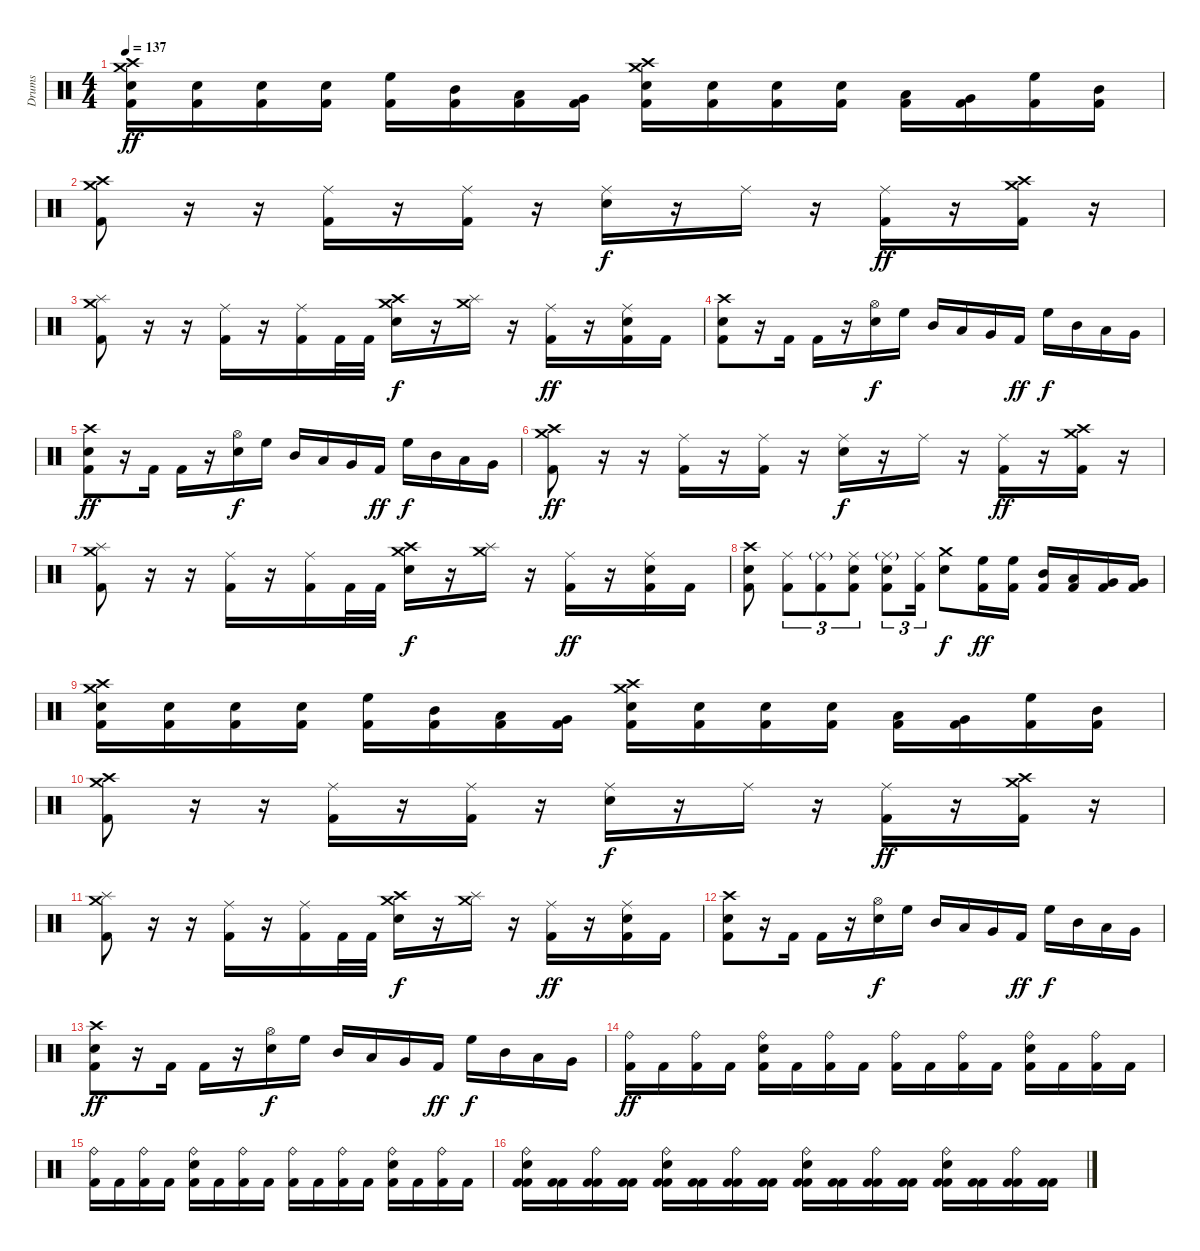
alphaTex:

\track ("Drums" "Drums") {instrument percussion}
\staff {score}
\articulation defaults
\ts (4 4)
\tempo 137
\clef neutral
\ks c
("Crash high (hit)" "Electric Snare (hit)" "Crash medium (hit)" "Kick (hit) 2").16{dy ff} ("Electric Snare (hit)" "Kick (hit) 2").16 ("Electric Snare (hit)" "Kick (hit) 2").16 ("Electric Snare (hit)" "Kick (hit) 2").16 ("High Floor Tom (hit)" "Kick (hit) 2").16 ("Mid Tom (hit)" "Kick (hit) 2").16 ("Low Tom (hit)" "Kick (hit) 2").16 ("Very Low Tom (hit)" "Kick (hit) 2").16 ("Crash high (hit)" "Electric Snare (hit)" "Crash medium (hit)" "Kick (hit) 2").16 ("Electric Snare (hit)" "Kick (hit) 2").16 ("Electric Snare (hit)" "Kick (hit) 2").16 ("Electric Snare (hit)" "Kick (hit) 2").16 ("Low Tom (hit)" "Kick (hit) 2").16 ("Very Low Tom (hit)" "Kick (hit) 2").16 ("High Floor Tom (hit)" "Kick (hit) 2").16 ("Mid Tom (hit)" "Kick (hit) 2").16 |
("Crash high (hit)" "Crash medium (hit)" "Kick (hit) 2").8 r.16 r.16 ("Ride (middle)" "Kick (hit) 2").16 r.16 ("Ride (middle)" "Kick (hit) 2").16 r.16 ("Ride (middle)" "Electric Snare (hit)").16{dy f} r.16 "Ride (middle)".16 r.16 ("Ride (middle)" "Kick (hit) 2").16{dy ff} r.16 ("Crash high (hit)" "Crash medium (hit)" "Kick (hit) 2").16 r.16 |
("Crash medium (hit)" "Splash (hit)" "Kick (hit) 2").8 r.16 r.16 ("Ride (middle)" "Kick (hit) 2").16 r.16 ("Ride (middle)" "Kick (hit) 2").16 "Kick (hit) 2".32 "Kick (hit) 2".32 ("Crash high (hit)" "Electric Snare (hit)" "Crash medium (hit)").16{dy f} r.16 ("Crash medium (hit)" "Splash (hit)").16 r.16 ("Ride (middle)" "Kick (hit) 2").16{dy ff} r.16 ("Ride (middle)" "Electric Snare (hit)" "Kick (hit) 2").16 "Kick (hit) 2".16 |
("Crash high (hit)" "Electric Snare (hit)" "Kick (hit) 2").8 r.16 "Kick (hit) 2".16 "Kick (hit) 2".16 r.16 ("Hi-Hat (open)" "Electric Snare (hit)").16{dy f} "High Floor Tom (hit)".16 "Mid Tom (hit)".16 "Low Tom (hit)".16 "Very Low Tom (hit)".16 "Kick (hit) 2".16{dy ff} "High Floor Tom (hit)".16{dy f} "Mid Tom (hit)".16 "Low Tom (hit)".16 "Very Low Tom (hit)".16 |
("Crash high (hit)" "Electric Snare (hit)" "Kick (hit) 2").8{dy ff} r.16 "Kick (hit) 2".16 "Kick (hit) 2".16 r.16 ("Hi-Hat (open)" "Electric Snare (hit)").16{dy f} "High Floor Tom (hit)".16 "Mid Tom (hit)".16 "Low Tom (hit)".16 "Very Low Tom (hit)".16 "Kick (hit) 2".16{dy ff} "High Floor Tom (hit)".16{dy f} "Mid Tom (hit)".16 "Low Tom (hit)".16 "Very Low Tom (hit)".16 |
("Crash high (hit)" "Crash medium (hit)" "Kick (hit) 2").8{dy ff} r.16 r.16 ("Ride (middle)" "Kick (hit) 2").16 r.16 ("Ride (middle)" "Kick (hit) 2").16 r.16 ("Ride (middle)" "Electric Snare (hit)").16{dy f} r.16 "Ride (middle)".16 r.16 ("Ride (middle)" "Kick (hit) 2").16{dy ff} r.16 ("Crash high (hit)" "Crash medium (hit)" "Kick (hit) 2").16 r.16 |
("Crash medium (hit)" "Splash (hit)" "Kick (hit) 2").8 r.16 r.16 ("Ride (middle)" "Kick (hit) 2").16 r.16 ("Ride (middle)" "Kick (hit) 2").16 "Kick (hit) 2".32 "Kick (hit) 2".32 ("Crash high (hit)" "Electric Snare (hit)" "Crash medium (hit)").16{dy f} r.16 ("Crash medium (hit)" "Splash (hit)").16 r.16 ("Ride (middle)" "Kick (hit) 2").16{dy ff} r.16 ("Ride (middle)" "Electric Snare (hit)" "Kick (hit) 2").16 "Kick (hit) 2".16 |
("Crash high (hit)" "Electric Snare (hit)" "Kick (hit) 2").8 ("Ride (middle)" "Kick (hit) 2").8{tu (3 2)} ("Ride (middle)"{g} "Kick (hit) 2").8{tu (3 2)} ("Ride (middle)" "Electric Snare (hit)" "Kick (hit) 2").8{tu (3 2)} ("Ride (middle)"{g} "Electric Snare (hit)" "Kick (hit) 2").8{tu (3 2)} ("Ride (middle)" "Kick (hit) 2").16{tu (3 2)} ("Crash medium (hit)" "Electric Snare (hit)").8{dy f} ("High Floor Tom (hit)" "Kick (hit) 2").16{dy ff} ("High Floor Tom (hit)" "Kick (hit) 2").16 ("Mid Tom (hit)" "Kick (hit) 2").16 ("Low Tom (hit)" "Kick (hit) 2").16 ("Very Low Tom (hit)" "Kick (hit) 2").16 ("Very Low Tom (hit)" "Kick (hit) 2").16 |
("Crash high (hit)" "Electric Snare (hit)" "Crash medium (hit)" "Kick (hit) 2").16 ("Electric Snare (hit)" "Kick (hit) 2").16 ("Electric Snare (hit)" "Kick (hit) 2").16 ("Electric Snare (hit)" "Kick (hit) 2").16 ("High Floor Tom (hit)" "Kick (hit) 2").16 ("Mid Tom (hit)" "Kick (hit) 2").16 ("Low Tom (hit)" "Kick (hit) 2").16 ("Very Low Tom (hit)" "Kick (hit) 2").16 ("Crash high (hit)" "Electric Snare (hit)" "Crash medium (hit)" "Kick (hit) 2").16 ("Electric Snare (hit)" "Kick (hit) 2").16 ("Electric Snare (hit)" "Kick (hit) 2").16 ("Electric Snare (hit)" "Kick (hit) 2").16 ("Low Tom (hit)" "Kick (hit) 2").16 ("Very Low Tom (hit)" "Kick (hit) 2").16 ("High Floor Tom (hit)" "Kick (hit) 2").16 ("Mid Tom (hit)" "Kick (hit) 2").16 |
("Crash high (hit)" "Crash medium (hit)" "Kick (hit) 2").8 r.16 r.16 ("Ride (middle)" "Kick (hit) 2").16 r.16 ("Ride (middle)" "Kick (hit) 2").16 r.16 ("Ride (middle)" "Electric Snare (hit)").16{dy f} r.16 "Ride (middle)".16 r.16 ("Ride (middle)" "Kick (hit) 2").16{dy ff} r.16 ("Crash high (hit)" "Crash medium (hit)" "Kick (hit) 2").16 r.16 |
("Crash medium (hit)" "Splash (hit)" "Kick (hit) 2").8 r.16 r.16 ("Ride (middle)" "Kick (hit) 2").16 r.16 ("Ride (middle)" "Kick (hit) 2").16 "Kick (hit) 2".32 "Kick (hit) 2".32 ("Crash high (hit)" "Electric Snare (hit)" "Crash medium (hit)").16{dy f} r.16 ("Crash medium (hit)" "Splash (hit)").16 r.16 ("Ride (middle)" "Kick (hit) 2").16{dy ff} r.16 ("Ride (middle)" "Electric Snare (hit)" "Kick (hit) 2").16 "Kick (hit) 2".16 |
("Crash high (hit)" "Electric Snare (hit)" "Kick (hit) 2").8 r.16 "Kick (hit) 2".16 "Kick (hit) 2".16 r.16 ("Hi-Hat (open)" "Electric Snare (hit)").16{dy f} "High Floor Tom (hit)".16 "Mid Tom (hit)".16 "Low Tom (hit)".16 "Very Low Tom (hit)".16 "Kick (hit) 2".16{dy ff} "High Floor Tom (hit)".16{dy f} "Mid Tom (hit)".16 "Low Tom (hit)".16 "Very Low Tom (hit)".16 |
("Crash high (hit)" "Electric Snare (hit)" "Kick (hit) 2").8{dy ff} r.16 "Kick (hit) 2".16 "Kick (hit) 2".16 r.16 ("Hi-Hat (open)" "Electric Snare (hit)").16{dy f} "High Floor Tom (hit)".16 "Mid Tom (hit)".16 "Low Tom (hit)".16 "Very Low Tom (hit)".16 "Kick (hit) 2".16{dy ff} "High Floor Tom (hit)".16{dy f} "Mid Tom (hit)".16 "Low Tom (hit)".16 "Very Low Tom (hit)".16 |
("Ride (bell)" "Kick (hit) 2").16{dy ff} "Kick (hit) 2".16 ("Ride (bell)" "Kick (hit) 2").16 "Kick (hit) 2".16 ("Ride (bell)" "Electric Snare (hit)" "Kick (hit) 2").16 "Kick (hit) 2".16 ("Ride (bell)" "Kick (hit) 2").16 "Kick (hit) 2".16 ("Ride (bell)" "Kick (hit) 2").16 "Kick (hit) 2".16 ("Ride (bell)" "Kick (hit) 2").16 "Kick (hit) 2".16 ("Ride (bell)" "Electric Snare (hit)" "Kick (hit) 2").16 "Kick (hit) 2".16 ("Ride (bell)" "Kick (hit) 2").16 "Kick (hit) 2".16 |
("Ride (bell)" "Kick (hit) 2").16 "Kick (hit) 2".16 ("Ride (bell)" "Kick (hit) 2").16 "Kick (hit) 2".16 ("Ride (bell)" "Electric Snare (hit)" "Kick (hit) 2").16 "Kick (hit) 2".16 ("Ride (bell)" "Kick (hit) 2").16 "Kick (hit) 2".16 ("Ride (bell)" "Kick (hit) 2").16 "Kick (hit) 2".16 ("Ride (bell)" "Kick (hit) 2").16 "Kick (hit) 2".16 ("Ride (bell)" "Electric Snare (hit)" "Kick (hit) 2").16 "Kick (hit) 2".16 ("Ride (bell)" "Kick (hit) 2").16 "Kick (hit) 2".16 |
("Ride (bell)" "Electric Snare (hit)" "Kick (hit) 2" "Kick (hit) 2").16 ("Kick (hit) 2" "Kick (hit) 2").16 ("Ride (bell)" "Kick (hit) 2" "Kick (hit) 2").16 ("Kick (hit) 2" "Kick (hit) 2").16 ("Ride (bell)" "Electric Snare (hit)" "Kick (hit) 2" "Kick (hit) 2").16 ("Kick (hit) 2" "Kick (hit) 2").16 ("Ride (bell)" "Kick (hit) 2" "Kick (hit) 2").16 ("Kick (hit) 2" "Kick (hit) 2").16 ("Ride (bell)" "Electric Snare (hit)" "Kick (hit) 2" "Kick (hit) 2").16 ("Kick (hit) 2" "Kick (hit) 2").16 ("Ride (bell)" "Kick (hit) 2" "Kick (hit) 2").16 ("Kick (hit) 2" "Kick (hit) 2").16 ("Ride (bell)" "Electric Snare (hit)" "Kick (hit) 2" "Kick (hit) 2").16 ("Kick (hit) 2" "Kick (hit) 2").16 ("Ride (bell)" "Kick (hit) 2" "Kick (hit) 2").16 ("Kick (hit) 2" "Kick (hit) 2").16
